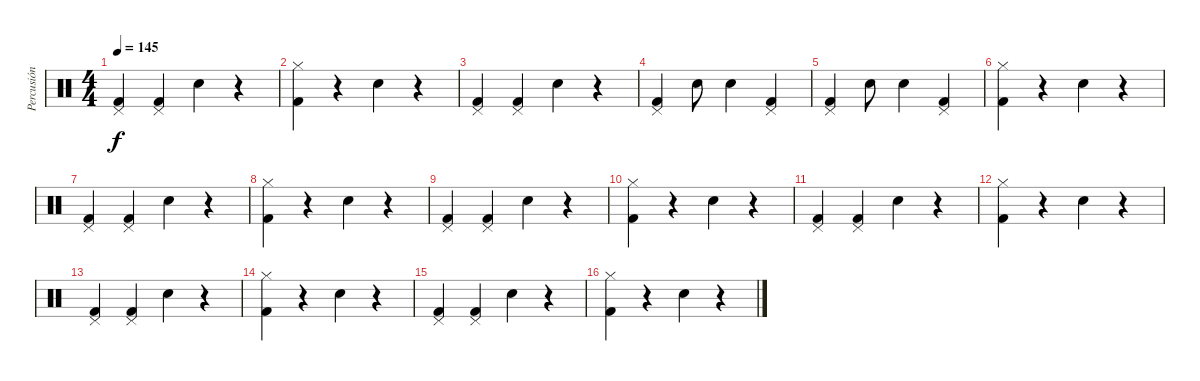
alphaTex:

\track ("Percusión" "Percusión") {instrument percussion}
\staff {score}
\articulation defaults
\ts (4 4)
\tempo 145
\clef neutral
\ks c
("Pedal Hi-Hat (hit)" "Kick (hit) 2").4{dy f} ("Pedal Hi-Hat (hit)" "Kick (hit) 2").4 "Electric Snare (hit)".4 r.4 |
("Hi-Hat (closed)" "Kick (hit) 2").4 r.4 "Electric Snare (hit)".4 r.4 |
("Pedal Hi-Hat (hit)" "Kick (hit) 2").4 ("Pedal Hi-Hat (hit)" "Kick (hit) 2").4 "Electric Snare (hit)".4 r.4 |
("Pedal Hi-Hat (hit)" "Kick (hit) 2").4 "Electric Snare (hit)".8 "Electric Snare (hit)".4 ("Pedal Hi-Hat (hit)" "Kick (hit) 2").4 |
("Pedal Hi-Hat (hit)" "Kick (hit) 2").4 "Electric Snare (hit)".8 "Electric Snare (hit)".4 ("Pedal Hi-Hat (hit)" "Kick (hit) 2").4 |
("Hi-Hat (closed)" "Kick (hit) 2").4 r.4 "Electric Snare (hit)".4 r.4 |
("Pedal Hi-Hat (hit)" "Kick (hit) 2").4 ("Pedal Hi-Hat (hit)" "Kick (hit) 2").4 "Electric Snare (hit)".4 r.4 |
("Hi-Hat (closed)" "Kick (hit) 2").4 r.4 "Electric Snare (hit)".4 r.4 |
("Pedal Hi-Hat (hit)" "Kick (hit) 2").4 ("Pedal Hi-Hat (hit)" "Kick (hit) 2").4 "Electric Snare (hit)".4 r.4 |
("Hi-Hat (closed)" "Kick (hit) 2").4 r.4 "Electric Snare (hit)".4 r.4 |
("Pedal Hi-Hat (hit)" "Kick (hit) 2").4 ("Pedal Hi-Hat (hit)" "Kick (hit) 2").4 "Electric Snare (hit)".4 r.4 |
("Hi-Hat (closed)" "Kick (hit) 2").4 r.4 "Electric Snare (hit)".4 r.4 |
("Pedal Hi-Hat (hit)" "Kick (hit) 2").4 ("Pedal Hi-Hat (hit)" "Kick (hit) 2").4 "Electric Snare (hit)".4 r.4 |
("Hi-Hat (closed)" "Kick (hit) 2").4 r.4 "Electric Snare (hit)".4 r.4 |
("Pedal Hi-Hat (hit)" "Kick (hit) 2").4 ("Pedal Hi-Hat (hit)" "Kick (hit) 2").4 "Electric Snare (hit)".4 r.4 |
("Hi-Hat (closed)" "Kick (hit) 2").4 r.4 "Electric Snare (hit)".4 r.4
